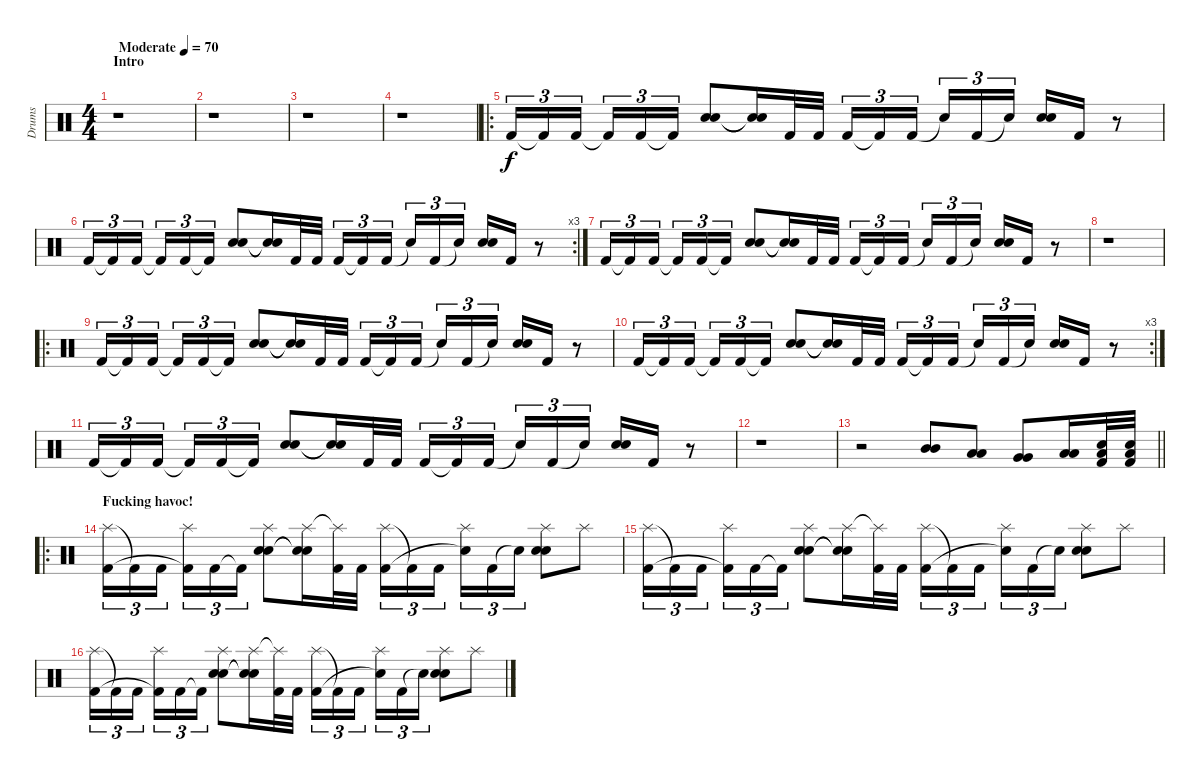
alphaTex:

\track ("Drums" "Drums") {instrument percussion}
\staff {score}
\articulation defaults
\ts (4 4)
\section ("" "Intro")
\tempo (70 "Moderate")
\clef neutral
\ks c
r.1{dy f} |
r.1 |
r.1 |
r.1 |
\ro "Kick (hit) 2".16{tu (3 2)} "Kick (hit) 2"{t}.16{tu (3 2)} "Kick (hit) 2".16{tu (3 2) beam splitsecondary} "Kick (hit) 2"{t}.16{tu (3 2)} "Kick (hit) 2".16{tu (3 2)} "Kick (hit) 2"{t}.16{tu (3 2)}
("Snare (hit) 2" "Electric Snare (hit)").8 ("Snare (hit) 2"{t} "Electric Snare (hit)"{t}).16 "Kick (hit) 2".32 "Kick (hit) 2".32 "Kick (hit) 2".16{tu (3 2)} "Kick (hit) 2"{t}.16{tu (3 2)} "Kick (hit) 2".16{tu (3 2) beam splitsecondary} "Snare (hit)"{t}.16{tu (3 2)} "Kick (hit) 2".16{tu (3 2)} "Snare (hit)"{t}.16{tu (3 2)} ("Snare (hit) 2" "Electric Snare (hit)").16 "Kick (hit) 2".16 r.8 |
\rc 3 "Kick (hit) 2".16{tu (3 2)} "Kick (hit) 2"{t}.16{tu (3 2)} "Kick (hit) 2".16{tu (3 2) beam splitsecondary} "Kick (hit) 2"{t}.16{tu (3 2)} "Kick (hit) 2".16{tu (3 2)} "Kick (hit) 2"{t}.16{tu (3 2)}
("Snare (hit) 2" "Electric Snare (hit)").8 ("Snare (hit) 2"{t} "Electric Snare (hit)"{t}).16 "Kick (hit) 2".32 "Kick (hit) 2".32 "Kick (hit) 2".16{tu (3 2)} "Kick (hit) 2"{t}.16{tu (3 2)} "Kick (hit) 2".16{tu (3 2) beam splitsecondary} "Snare (hit)"{t}.16{tu (3 2)} "Kick (hit) 2".16{tu (3 2)} "Snare (hit)"{t}.16{tu (3 2)} ("Snare (hit) 2" "Electric Snare (hit)").16 "Kick (hit) 2".16 r.8 |
"Kick (hit) 2".16{tu (3 2)} "Kick (hit) 2"{t}.16{tu (3 2)} "Kick (hit) 2".16{tu (3 2) beam splitsecondary} "Kick (hit) 2"{t}.16{tu (3 2)} "Kick (hit) 2".16{tu (3 2)} "Kick (hit) 2"{t}.16{tu (3 2)} ("Snare (hit) 2" "Electric Snare (hit)").8 ("Snare (hit) 2"{t} "Electric Snare (hit)"{t}).16 "Kick (hit) 2".32 "Kick (hit) 2".32 "Kick (hit) 2".16{tu (3 2)} "Kick (hit) 2"{t}.16{tu (3 2)} "Kick (hit) 2".16{tu (3 2) beam splitsecondary} "Snare (hit)"{t}.16{tu (3 2)} "Kick (hit) 2".16{tu (3 2)} "Snare (hit)"{t}.16{tu (3 2)} ("Snare (hit) 2" "Electric Snare (hit)").16 "Kick (hit) 2".16 r.8 |
r.1 |
\ro "Kick (hit) 2".16{tu (3 2)} "Kick (hit) 2"{t}.16{tu (3 2)} "Kick (hit) 2".16{tu (3 2) beam splitsecondary} "Kick (hit) 2"{t}.16{tu (3 2)} "Kick (hit) 2".16{tu (3 2)} "Kick (hit) 2"{t}.16{tu (3 2)}
("Snare (hit) 2" "Electric Snare (hit)").8 ("Snare (hit) 2"{t} "Electric Snare (hit)"{t}).16 "Kick (hit) 2".32 "Kick (hit) 2".32 "Kick (hit) 2".16{tu (3 2)} "Kick (hit) 2"{t}.16{tu (3 2)} "Kick (hit) 2".16{tu (3 2) beam splitsecondary} "Snare (hit)"{t}.16{tu (3 2)} "Kick (hit) 2".16{tu (3 2)} "Snare (hit)"{t}.16{tu (3 2)} ("Snare (hit) 2" "Electric Snare (hit)").16 "Kick (hit) 2".16 r.8 |
\rc 3 "Kick (hit) 2".16{tu (3 2)} "Kick (hit) 2"{t}.16{tu (3 2)} "Kick (hit) 2".16{tu (3 2) beam splitsecondary} "Kick (hit) 2"{t}.16{tu (3 2)} "Kick (hit) 2".16{tu (3 2)} "Kick (hit) 2"{t}.16{tu (3 2)}
("Snare (hit) 2" "Electric Snare (hit)").8 ("Snare (hit) 2"{t} "Electric Snare (hit)"{t}).16 "Kick (hit) 2".32 "Kick (hit) 2".32 "Kick (hit) 2".16{tu (3 2)} "Kick (hit) 2"{t}.16{tu (3 2)} "Kick (hit) 2".16{tu (3 2) beam splitsecondary} "Snare (hit)"{t}.16{tu (3 2)} "Kick (hit) 2".16{tu (3 2)} "Snare (hit)"{t}.16{tu (3 2)} ("Snare (hit) 2" "Electric Snare (hit)").16 "Kick (hit) 2".16 r.8 |
"Kick (hit) 2".16{tu (3 2)} "Kick (hit) 2"{t}.16{tu (3 2)} "Kick (hit) 2".16{tu (3 2) beam splitsecondary} "Kick (hit) 2"{t}.16{tu (3 2)} "Kick (hit) 2".16{tu (3 2)} "Kick (hit) 2"{t}.16{tu (3 2)} ("Snare (hit) 2" "Electric Snare (hit)").8 ("Snare (hit) 2"{t} "Electric Snare (hit)"{t}).16 "Kick (hit) 2".32 "Kick (hit) 2".32 "Kick (hit) 2".16{tu (3 2)} "Kick (hit) 2"{t}.16{tu (3 2)} "Kick (hit) 2".16{tu (3 2) beam splitsecondary} "Snare (hit)"{t}.16{tu (3 2)} "Kick (hit) 2".16{tu (3 2)} "Snare (hit)"{t}.16{tu (3 2)} ("Snare (hit) 2" "Electric Snare (hit)").16 "Kick (hit) 2".16 r.8 |
r.1 |
\barLineRight lightlight
r.2 ("Mid Tom (hit)" "Mid Tom (hit)").8{bd 60} ("Low Tom (hit)" "Low Tom (hit)").8{bd 60} ("Very Low Tom (hit)" "Very Low Tom (hit)").8{bd 60} ("Low Floor Tom (hit)" "Low Floor Tom (hit)").16{bd 60} ("Low Floor Tom (hit)" "Electric Snare (hit)" "Kick (hit) 2").32 ("Low Floor Tom (hit)" "Electric Snare (hit)" "Kick (hit) 2").32 |
\ro
\section ("" "Fucking havoc!")
("Splash (hit)" "Kick (hit) 2").16{tu (3 2)} "Kick (hit) 2"{t}.16{tu (3 2)} "Kick (hit) 2".16{tu (3 2) beam splitsecondary} ("Splash (hit)" "Kick (hit) 2"{t}).16{tu (3 2)} "Kick (hit) 2".16{tu (3 2)} "Kick (hit) 2"{t}.16{tu (3 2)} ("Splash (hit)" "Snare (hit) 2" "Electric Snare (hit)").8 ("Splash (hit)" "Snare (hit) 2"{t} "Electric Snare (hit)"{t}).16 ("Splash (hit)"{t} "Kick (hit) 2").32 "Kick (hit) 2".32 ("Splash (hit)" "Kick (hit) 2").16{tu (3 2)} "Kick (hit) 2"{t}.16{tu (3 2)} "Kick (hit) 2".16{tu (3 2) beam splitsecondary} ("Splash (hit)" "Snare (hit)"{t}).16{tu (3 2)} "Kick (hit) 2".16{tu (3 2)} "Snare (hit)"{t}.16{tu (3 2)} ("Splash (hit)" "Snare (hit) 2" "Electric Snare (hit)").8 "Splash (hit)".8 |
("Splash (hit)" "Kick (hit) 2").16{tu (3 2)} "Kick (hit) 2"{t}.16{tu (3 2)} "Kick (hit) 2".16{tu (3 2) beam splitsecondary} ("Splash (hit)" "Kick (hit) 2"{t}).16{tu (3 2)} "Kick (hit) 2".16{tu (3 2)} "Kick (hit) 2"{t}.16{tu (3 2)} ("Splash (hit)" "Snare (hit) 2" "Electric Snare (hit)").8 ("Splash (hit)" "Snare (hit) 2"{t} "Electric Snare (hit)"{t}).16 ("Splash (hit)"{t} "Kick (hit) 2").32 "Kick (hit) 2".32 ("Splash (hit)" "Kick (hit) 2").16{tu (3 2)} "Kick (hit) 2"{t}.16{tu (3 2)} "Kick (hit) 2".16{tu (3 2) beam splitsecondary} ("Splash (hit)" "Snare (hit)"{t}).16{tu (3 2)} "Kick (hit) 2".16{tu (3 2)} "Snare (hit)"{t}.16{tu (3 2)} ("Splash (hit)" "Snare (hit) 2" "Electric Snare (hit)").8 "Splash (hit)".8 |
("Splash (hit)" "Kick (hit) 2").16{tu (3 2)} "Kick (hit) 2"{t}.16{tu (3 2)} "Kick (hit) 2".16{tu (3 2) beam splitsecondary} ("Splash (hit)" "Kick (hit) 2"{t}).16{tu (3 2)} "Kick (hit) 2".16{tu (3 2)} "Kick (hit) 2"{t}.16{tu (3 2)} ("Splash (hit)" "Snare (hit) 2" "Electric Snare (hit)").8 ("Splash (hit)" "Snare (hit) 2"{t} "Electric Snare (hit)"{t}).16 ("Splash (hit)"{t} "Kick (hit) 2").32 "Kick (hit) 2".32 ("Splash (hit)" "Kick (hit) 2").16{tu (3 2)} "Kick (hit) 2"{t}.16{tu (3 2)} "Kick (hit) 2".16{tu (3 2) beam splitsecondary} ("Splash (hit)" "Snare (hit)"{t}).16{tu (3 2)} "Kick (hit) 2".16{tu (3 2)} "Snare (hit)"{t}.16{tu (3 2)} ("Splash (hit)" "Snare (hit) 2" "Electric Snare (hit)").8 "Splash (hit)".8
